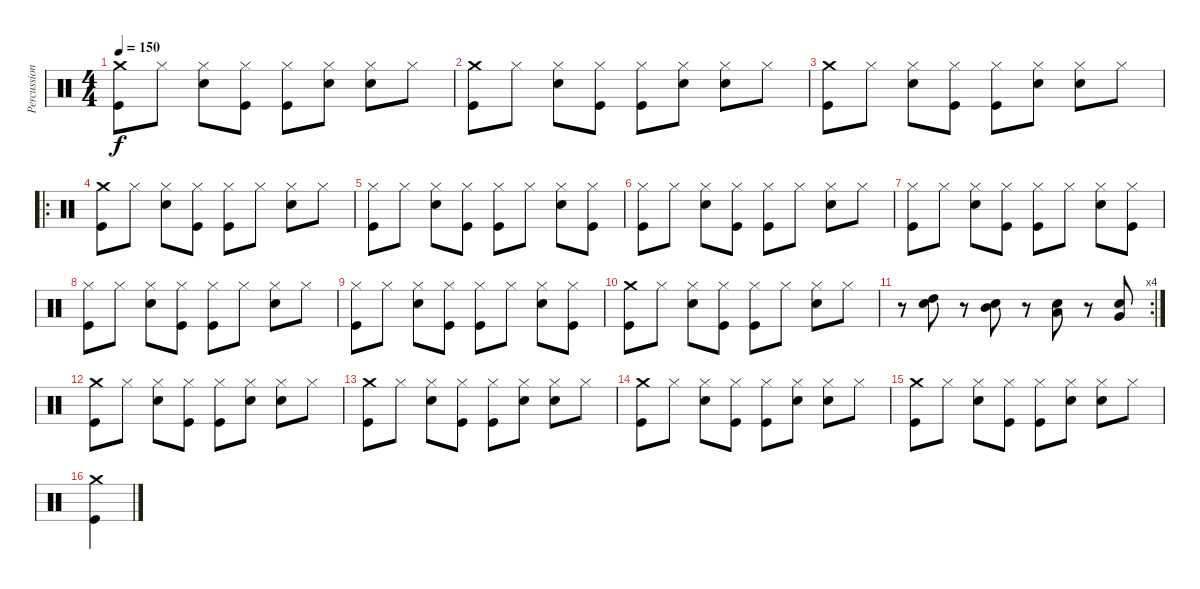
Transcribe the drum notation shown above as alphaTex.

\track ("Percussions" "Percussion") {instrument percussion}
\staff {score}
\articulation defaults
\ts (4 4)
\tempo 150
\clef neutral
\ks c
("Crash medium (hit)" "Kick (hit)").8{dy f} "Hi-Hat (closed)".8 ("Hi-Hat (closed)" "Snare (hit) 2").8 ("Hi-Hat (closed)" "Kick (hit)").8 ("Hi-Hat (closed)" "Kick (hit)").8 ("Hi-Hat (closed)" "Snare (hit) 2").8 ("Hi-Hat (closed)" "Snare (hit) 2").8 "Hi-Hat (closed)".8 |
("Crash medium (hit)" "Kick (hit)").8 "Hi-Hat (closed)".8 ("Hi-Hat (closed)" "Snare (hit) 2").8 ("Hi-Hat (closed)" "Kick (hit)").8 ("Hi-Hat (closed)" "Kick (hit)").8 ("Hi-Hat (closed)" "Snare (hit) 2").8 ("Hi-Hat (closed)" "Snare (hit) 2").8 "Hi-Hat (closed)".8 |
("Crash medium (hit)" "Kick (hit)").8 "Hi-Hat (closed)".8 ("Hi-Hat (closed)" "Snare (hit) 2").8 ("Hi-Hat (closed)" "Kick (hit)").8 ("Hi-Hat (closed)" "Kick (hit)").8 ("Hi-Hat (closed)" "Snare (hit) 2").8 ("Hi-Hat (closed)" "Snare (hit) 2").8 "Hi-Hat (closed)".8 |
\ro
("Crash medium (hit)" "Kick (hit)").8 "Hi-Hat (closed)".8 ("Hi-Hat (closed)" "Snare (hit) 2").8 ("Hi-Hat (closed)" "Kick (hit)").8 ("Hi-Hat (closed)" "Kick (hit)").8 "Hi-Hat (closed)".8 ("Hi-Hat (closed)" "Snare (hit) 2").8 "Hi-Hat (closed)".8 |
("Hi-Hat (closed)" "Kick (hit)").8 "Hi-Hat (closed)".8 ("Hi-Hat (closed)" "Snare (hit) 2").8 ("Hi-Hat (closed)" "Kick (hit)").8 ("Hi-Hat (closed)" "Kick (hit)").8 "Hi-Hat (closed)".8 ("Hi-Hat (closed)" "Snare (hit) 2").8 ("Hi-Hat (closed)" "Kick (hit)").8 |
("Hi-Hat (closed)" "Kick (hit)").8 "Hi-Hat (closed)".8 ("Hi-Hat (closed)" "Snare (hit) 2").8 ("Hi-Hat (closed)" "Kick (hit)").8 ("Hi-Hat (closed)" "Kick (hit)").8 "Hi-Hat (closed)".8 ("Hi-Hat (closed)" "Snare (hit) 2").8 "Hi-Hat (closed)".8 |
("Hi-Hat (closed)" "Kick (hit)").8 "Hi-Hat (closed)".8 ("Hi-Hat (closed)" "Snare (hit) 2").8 ("Hi-Hat (closed)" "Kick (hit)").8 ("Hi-Hat (closed)" "Kick (hit)").8 "Hi-Hat (closed)".8 ("Hi-Hat (closed)" "Snare (hit) 2").8 ("Hi-Hat (closed)" "Kick (hit)").8 |
("Hi-Hat (closed)" "Kick (hit)").8 "Hi-Hat (closed)".8 ("Hi-Hat (closed)" "Snare (hit) 2").8 ("Hi-Hat (closed)" "Kick (hit)").8 ("Hi-Hat (closed)" "Kick (hit)").8 "Hi-Hat (closed)".8 ("Hi-Hat (closed)" "Snare (hit) 2").8 "Hi-Hat (closed)".8 |
("Hi-Hat (closed)" "Kick (hit)").8 "Hi-Hat (closed)".8 ("Hi-Hat (closed)" "Snare (hit) 2").8 ("Hi-Hat (closed)" "Kick (hit)").8 ("Hi-Hat (closed)" "Kick (hit)").8 "Hi-Hat (closed)".8 ("Hi-Hat (closed)" "Snare (hit) 2").8 ("Hi-Hat (closed)" "Kick (hit)").8 |
("Crash medium (hit)" "Kick (hit)").8 "Hi-Hat (closed)".8 ("Hi-Hat (closed)" "Snare (hit) 2").8 ("Hi-Hat (closed)" "Kick (hit)").8 ("Hi-Hat (closed)" "Kick (hit)").8 "Hi-Hat (closed)".8 ("Hi-Hat (closed)" "Snare (hit) 2").8 "Hi-Hat (closed)".8 |
\rc 4
r.8 ("High Tom (hit)" "Snare (hit) 2").8 r.8 ("Mid Tom (hit)" "Snare (hit) 2").8 r.8 ("Low Tom (hit)" "Snare (hit) 2").8 r.8 ("Very Low Tom (hit)" "Snare (hit) 2").8 |
("Crash medium (hit)" "Kick (hit)").8 "Hi-Hat (closed)".8 ("Hi-Hat (closed)" "Snare (hit) 2").8 ("Hi-Hat (closed)" "Kick (hit)").8 ("Hi-Hat (closed)" "Kick (hit)").8 ("Hi-Hat (closed)" "Snare (hit) 2").8 ("Hi-Hat (closed)" "Snare (hit) 2").8 "Hi-Hat (closed)".8 |
("Crash medium (hit)" "Kick (hit)").8 "Hi-Hat (closed)".8 ("Hi-Hat (closed)" "Snare (hit) 2").8 ("Hi-Hat (closed)" "Kick (hit)").8 ("Hi-Hat (closed)" "Kick (hit)").8 ("Hi-Hat (closed)" "Snare (hit) 2").8 ("Hi-Hat (closed)" "Snare (hit) 2").8 "Hi-Hat (closed)".8 |
("Crash medium (hit)" "Kick (hit)").8 "Hi-Hat (closed)".8 ("Hi-Hat (closed)" "Snare (hit) 2").8 ("Hi-Hat (closed)" "Kick (hit)").8 ("Hi-Hat (closed)" "Kick (hit)").8 ("Hi-Hat (closed)" "Snare (hit) 2").8 ("Hi-Hat (closed)" "Snare (hit) 2").8 "Hi-Hat (closed)".8 |
("Crash medium (hit)" "Kick (hit)").8 "Hi-Hat (closed)".8 ("Hi-Hat (closed)" "Snare (hit) 2").8 ("Hi-Hat (closed)" "Kick (hit)").8 ("Hi-Hat (closed)" "Kick (hit)").8 ("Hi-Hat (closed)" "Snare (hit) 2").8 ("Hi-Hat (closed)" "Snare (hit) 2").8 "Hi-Hat (closed)".8 |
("Crash medium (hit)" "Kick (hit)").4
